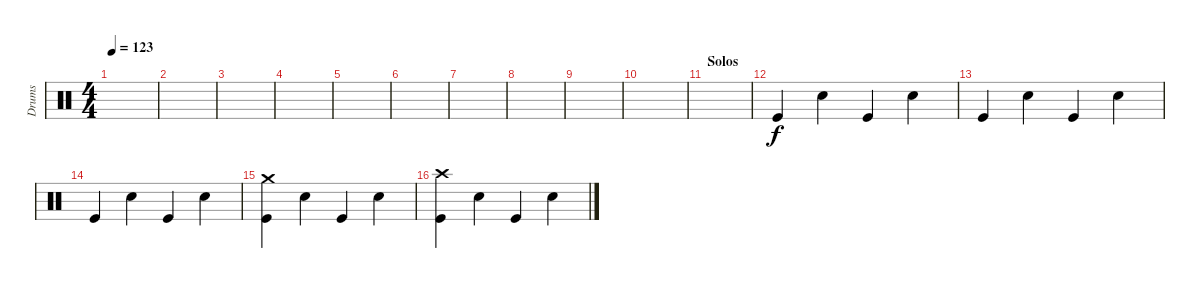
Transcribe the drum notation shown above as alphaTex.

\track ("Drums" "Drums") {instrument percussion}
\staff {score}
\articulation defaults
\ts (4 4)
\tempo 123
\clef neutral
\ks c
|
|
|
|
|
|
|
|
|
|
\section ("" "Solos")
|
"Kick (hit)".4 "Snare (hit) 2".4 "Kick (hit)".4 "Snare (hit) 2".4 |
"Kick (hit)".4 "Snare (hit) 2".4 "Kick (hit)".4 "Snare (hit) 2".4 |
"Kick (hit)".4 "Snare (hit) 2".4 "Kick (hit)".4 "Snare (hit) 2".4 |
("Crash medium (hit)" "Kick (hit)").4 "Snare (hit) 2".4 "Kick (hit)".4 "Snare (hit) 2".4 |
("Crash high (hit)" "Kick (hit)").4 "Snare (hit) 2".4 "Kick (hit)".4 "Snare (hit) 2".4
